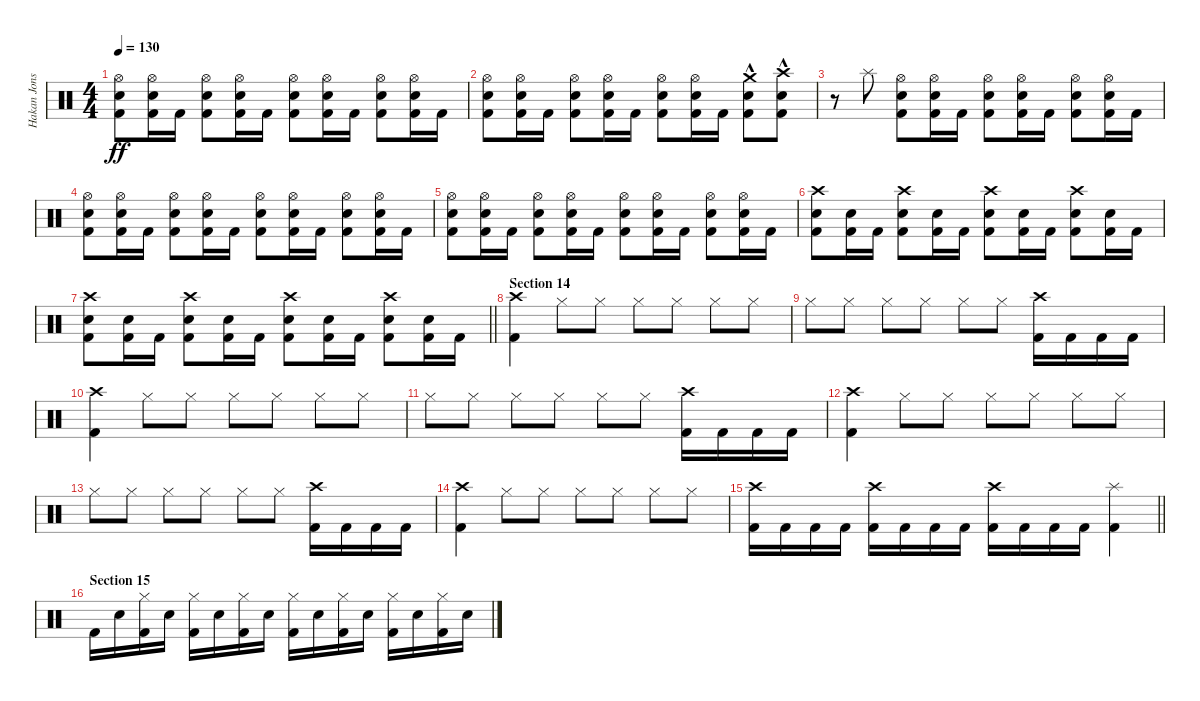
\track ("Hakan Jonsson" "Hakan Jons") {instrument percussion}
\staff {score}
\articulation defaults
\ts (4 4)
\tempo 130
\clef neutral
\ks c
("Hi-Hat (open)" "Electric Snare (hit)" "Kick (hit) 2").8{dy ff} ("Hi-Hat (open)" "Electric Snare (hit)" "Kick (hit) 2").16 "Kick (hit) 2".16 ("Hi-Hat (open)" "Electric Snare (hit)" "Kick (hit) 2").8 ("Hi-Hat (open)" "Electric Snare (hit)" "Kick (hit) 2").16 "Kick (hit) 2".16 ("Hi-Hat (open)" "Electric Snare (hit)" "Kick (hit) 2").8 ("Hi-Hat (open)" "Electric Snare (hit)" "Kick (hit) 2").16 "Kick (hit) 2".16 ("Hi-Hat (open)" "Electric Snare (hit)" "Kick (hit) 2").8 ("Hi-Hat (open)" "Electric Snare (hit)" "Kick (hit) 2").16 "Kick (hit) 2".16 |
("Hi-Hat (open)" "Electric Snare (hit)" "Kick (hit) 2").8 ("Hi-Hat (open)" "Electric Snare (hit)" "Kick (hit) 2").16 "Kick (hit) 2".16 ("Hi-Hat (open)" "Electric Snare (hit)" "Kick (hit) 2").8 ("Hi-Hat (open)" "Electric Snare (hit)" "Kick (hit) 2").16 "Kick (hit) 2".16 ("Hi-Hat (open)" "Electric Snare (hit)" "Kick (hit) 2").8 ("Hi-Hat (open)" "Electric Snare (hit)" "Kick (hit) 2").16 "Kick (hit) 2".16 ("Crash medium (hit)" "Electric Snare (hit)"{hac} "Kick (hit) 2"{hac}).8 ("Crash high (hit)" "Electric Snare (hit)"{hac} "Kick (hit) 2"{hac}).8 |
r.8 "Splash (hit)".8 ("Hi-Hat (open)" "Electric Snare (hit)" "Kick (hit) 2").8 ("Hi-Hat (open)" "Electric Snare (hit)" "Kick (hit) 2").16 "Kick (hit) 2".16 ("Hi-Hat (open)" "Electric Snare (hit)" "Kick (hit) 2").8 ("Hi-Hat (open)" "Electric Snare (hit)" "Kick (hit) 2").16 "Kick (hit) 2".16 ("Hi-Hat (open)" "Electric Snare (hit)" "Kick (hit) 2").8 ("Hi-Hat (open)" "Electric Snare (hit)" "Kick (hit) 2").16 "Kick (hit) 2".16 |
("Hi-Hat (open)" "Electric Snare (hit)" "Kick (hit) 2").8 ("Hi-Hat (open)" "Electric Snare (hit)" "Kick (hit) 2").16 "Kick (hit) 2".16 ("Hi-Hat (open)" "Electric Snare (hit)" "Kick (hit) 2").8 ("Hi-Hat (open)" "Electric Snare (hit)" "Kick (hit) 2").16 "Kick (hit) 2".16 ("Hi-Hat (open)" "Electric Snare (hit)" "Kick (hit) 2").8 ("Hi-Hat (open)" "Electric Snare (hit)" "Kick (hit) 2").16 "Kick (hit) 2".16 ("Hi-Hat (open)" "Electric Snare (hit)" "Kick (hit) 2").8 ("Hi-Hat (open)" "Electric Snare (hit)" "Kick (hit) 2").16 "Kick (hit) 2".16 |
("Hi-Hat (open)" "Electric Snare (hit)" "Kick (hit) 2").8 ("Hi-Hat (open)" "Electric Snare (hit)" "Kick (hit) 2").16 "Kick (hit) 2".16 ("Hi-Hat (open)" "Electric Snare (hit)" "Kick (hit) 2").8 ("Hi-Hat (open)" "Electric Snare (hit)" "Kick (hit) 2").16 "Kick (hit) 2".16 ("Hi-Hat (open)" "Electric Snare (hit)" "Kick (hit) 2").8 ("Hi-Hat (open)" "Electric Snare (hit)" "Kick (hit) 2").16 "Kick (hit) 2".16 ("Hi-Hat (open)" "Electric Snare (hit)" "Kick (hit) 2").8 ("Hi-Hat (open)" "Electric Snare (hit)" "Kick (hit) 2").16 "Kick (hit) 2".16 |
("Crash high (hit)" "Electric Snare (hit)" "Kick (hit) 2").8 ("Electric Snare (hit)" "Kick (hit) 2").16 "Kick (hit) 2".16 ("Crash high (hit)" "Electric Snare (hit)" "Kick (hit) 2").8 ("Electric Snare (hit)" "Kick (hit) 2").16 "Kick (hit) 2".16 ("Crash high (hit)" "Electric Snare (hit)" "Kick (hit) 2").8 ("Electric Snare (hit)" "Kick (hit) 2").16 "Kick (hit) 2".16 ("Crash high (hit)" "Electric Snare (hit)" "Kick (hit) 2").8 ("Electric Snare (hit)" "Kick (hit) 2").16 "Kick (hit) 2".16 |
\barLineRight lightlight
("Crash high (hit)" "Electric Snare (hit)" "Kick (hit) 2").8 ("Electric Snare (hit)" "Kick (hit) 2").16 "Kick (hit) 2".16 ("Crash high (hit)" "Electric Snare (hit)" "Kick (hit) 2").8 ("Electric Snare (hit)" "Kick (hit) 2").16 "Kick (hit) 2".16 ("Crash high (hit)" "Electric Snare (hit)" "Kick (hit) 2").8 ("Electric Snare (hit)" "Kick (hit) 2").16 "Kick (hit) 2".16 ("Crash high (hit)" "Electric Snare (hit)" "Kick (hit) 2").8 ("Electric Snare (hit)" "Kick (hit) 2").16 "Kick (hit) 2".16 |
\section ("" "Section 14")
("Crash high (hit)" "Kick (hit) 2").4 "Hi-Hat (closed)".8 "Hi-Hat (closed)".8 "Hi-Hat (closed)".8 "Hi-Hat (closed)".8 "Hi-Hat (closed)".8 "Hi-Hat (closed)".8 |
"Hi-Hat (closed)".8 "Hi-Hat (closed)".8 "Hi-Hat (closed)".8 "Hi-Hat (closed)".8 "Hi-Hat (closed)".8 "Hi-Hat (closed)".8 ("Crash high (hit)" "Kick (hit) 2").16 "Kick (hit) 2".16 "Kick (hit) 2".16 "Kick (hit) 2".16 |
("Crash high (hit)" "Kick (hit) 2").4 "Hi-Hat (closed)".8 "Hi-Hat (closed)".8 "Hi-Hat (closed)".8 "Hi-Hat (closed)".8 "Hi-Hat (closed)".8 "Hi-Hat (closed)".8 |
"Hi-Hat (closed)".8 "Hi-Hat (closed)".8 "Hi-Hat (closed)".8 "Hi-Hat (closed)".8 "Hi-Hat (closed)".8 "Hi-Hat (closed)".8 ("Crash high (hit)" "Kick (hit) 2").16 "Kick (hit) 2".16 "Kick (hit) 2".16 "Kick (hit) 2".16 |
("Crash high (hit)" "Kick (hit) 2").4 "Hi-Hat (closed)".8 "Hi-Hat (closed)".8 "Hi-Hat (closed)".8 "Hi-Hat (closed)".8 "Hi-Hat (closed)".8 "Hi-Hat (closed)".8 |
"Hi-Hat (closed)".8 "Hi-Hat (closed)".8 "Hi-Hat (closed)".8 "Hi-Hat (closed)".8 "Hi-Hat (closed)".8 "Hi-Hat (closed)".8 ("Crash high (hit)" "Kick (hit) 2").16 "Kick (hit) 2".16 "Kick (hit) 2".16 "Kick (hit) 2".16 |
("Crash high (hit)" "Kick (hit) 2").4 "Hi-Hat (closed)".8 "Hi-Hat (closed)".8 "Hi-Hat (closed)".8 "Hi-Hat (closed)".8 "Hi-Hat (closed)".8 "Hi-Hat (closed)".8 |
\barLineRight lightlight
("Crash high (hit)" "Kick (hit) 2").16 "Kick (hit) 2".16 "Kick (hit) 2".16 "Kick (hit) 2".16 ("Crash high (hit)" "Kick (hit) 2").16 "Kick (hit) 2".16 "Kick (hit) 2".16 "Kick (hit) 2".16 ("Crash high (hit)" "Kick (hit) 2").16 "Kick (hit) 2".16 "Kick (hit) 2".16 "Kick (hit) 2".16 ("Splash (hit)" "Kick (hit) 2").4 |
\section ("" "Section 15")
"Kick (hit) 2".16 "Electric Snare (hit)".16 ("Hi-Hat (closed)" "Kick (hit) 2").16 "Electric Snare (hit)".16 ("Hi-Hat (closed)" "Kick (hit) 2").16 "Electric Snare (hit)".16 ("Hi-Hat (closed)" "Kick (hit) 2").16 "Electric Snare (hit)".16 ("Hi-Hat (closed)" "Kick (hit) 2").16 "Electric Snare (hit)".16 ("Hi-Hat (closed)" "Kick (hit) 2").16 "Electric Snare (hit)".16 ("Hi-Hat (closed)" "Kick (hit) 2").16 "Electric Snare (hit)".16 ("Hi-Hat (closed)" "Kick (hit) 2").16 "Electric Snare (hit)".16
